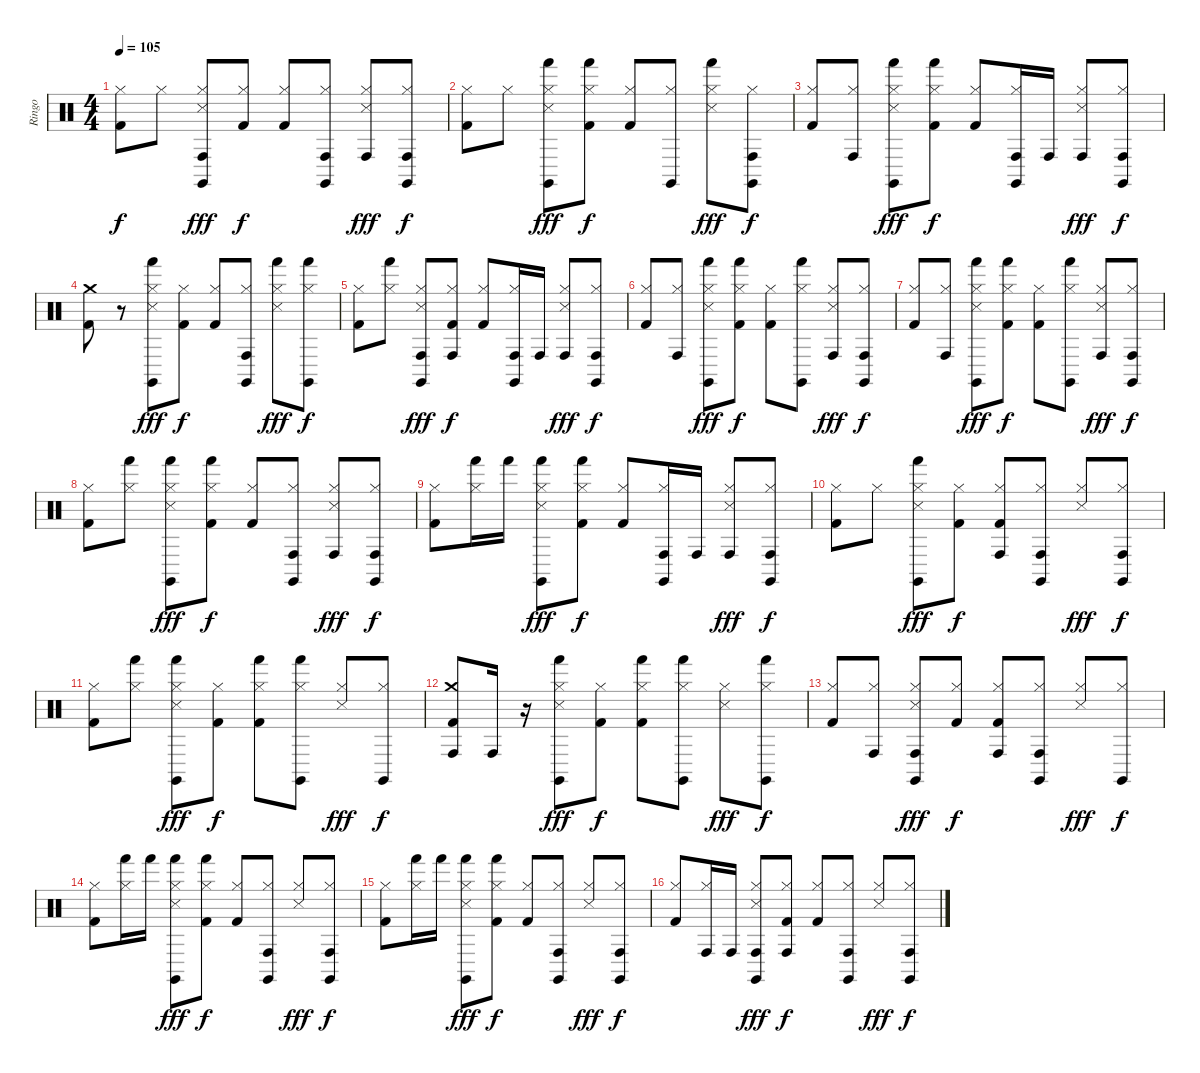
\track ("Ringo" "Ringo") {instrument percussion}
\staff {score}
\articulation defaults
\ts (4 4)
\tempo 105
\clef neutral
\ks c
("Kick (hit) 2" "Hi-Hat (closed)").8{dy f} "Hi-Hat (closed)".8 ("Claves (hit)" "Snare (side stick) 3" "Conga high (hit)" "Hi-Hat (closed)").8{dy fff} ("Hi-Hat (closed)" "Kick (hit) 2").8{dy f} ("Kick (hit) 2" "Hi-Hat (closed)").8 ("Conga high (hit)" "Claves (hit)" "Hi-Hat (closed)").8 ("Snare (side stick) 3" "Hi-Hat (closed)" "Conga high (hit)").8{dy fff} ("Hi-Hat (closed)" "Conga high (hit)" "Claves (hit)").8{dy f} |
("Kick (hit) 2" "Hi-Hat (closed)").8 "Hi-Hat (closed)".8 ("Hi-Hat (closed)" "Hand (hit)" "Claves (hit)" "Snare (side stick) 3").8{dy fff} ("Hi-Hat (closed)" "Hand (hit)" "Kick (hit) 2").8{dy f} ("Hi-Hat (closed)" "Kick (hit) 2").8 ("Claves (hit)" "Hi-Hat (closed)").8 ("Hand (hit)" "Hi-Hat (closed)" "Snare (side stick) 3").8{dy fff} ("Claves (hit)" "Hi-Hat (closed)" "Conga high (hit)").8{dy f} |
("Hi-Hat (closed)" "Kick (hit) 2").8 ("Conga high (hit)" "Hi-Hat (closed)").8 ("Hi-Hat (closed)" "Hand (hit)" "Snare (side stick) 3" "Claves (hit)").8{dy fff} ("Hi-Hat (closed)" "Hand (hit)" "Kick (hit) 2").8{dy f} ("Kick (hit) 2" "Hi-Hat (closed)").8 ("Claves (hit)" "Hi-Hat (closed)" "Conga high (hit)").16 "Conga high (hit)".16 ("Hi-Hat (closed)" "Snare (side stick) 3" "Conga high (hit)").8{dy fff} ("Conga high (hit)" "Hi-Hat (closed)" "Claves (hit)").8{dy f} |
("Crash medium (hit)" "Kick (hit) 2").8 r.8 ("Claves (hit)" "Hand (hit)" "Snare (side stick) 3" "Hi-Hat (closed)").8{dy fff} ("Hi-Hat (closed)" "Kick (hit) 2").8{dy f} ("Kick (hit) 2" "Hi-Hat (closed)").8 ("Conga high (hit)" "Hi-Hat (closed)" "Claves (hit)").8 ("Hand (hit)" "Snare (side stick) 3" "Hi-Hat (closed)").8{dy fff} ("Hand (hit)" "Hi-Hat (closed)" "Claves (hit)").8{dy f} |
("Kick (hit) 2" "Hi-Hat (closed)").8 ("Hi-Hat (closed)" "Hand (hit)").8 ("Hi-Hat (closed)" "Claves (hit)" "Conga high (hit)" "Snare (side stick) 3").8{dy fff} ("Hi-Hat (closed)" "Kick (hit) 2" "Conga high (hit)").8{dy f} ("Hi-Hat (closed)" "Kick (hit) 2").8 ("Conga high (hit)" "Claves (hit)" "Hi-Hat (closed)").16 "Conga high (hit)".16 ("Snare (side stick) 3" "Hi-Hat (closed)" "Conga high (hit)").8{dy fff} ("Hi-Hat (closed)" "Conga high (hit)" "Claves (hit)").8{dy f} |
("Kick (hit) 2" "Hi-Hat (closed)").8 ("Conga high (hit)" "Hi-Hat (closed)").8 ("Snare (side stick) 3" "Hand (hit)" "Claves (hit)" "Hi-Hat (closed)").8{dy fff} ("Hand (hit)" "Hi-Hat (closed)" "Kick (hit) 2").8{dy f} ("Kick (hit) 2" "Hi-Hat (closed)").8 ("Claves (hit)" "Hi-Hat (closed)" "Hand (hit)").8 ("Hi-Hat (closed)" "Conga high (hit)" "Snare (side stick) 3").8{dy fff} ("Hi-Hat (closed)" "Conga high (hit)" "Claves (hit)").8{dy f} |
("Hi-Hat (closed)" "Kick (hit) 2").8 ("Conga high (hit)" "Hi-Hat (closed)").8 ("Hi-Hat (closed)" "Hand (hit)" "Claves (hit)" "Snare (side stick) 3").8{dy fff} ("Hand (hit)" "Hi-Hat (closed)" "Kick (hit) 2").8{dy f} ("Hi-Hat (closed)" "Kick (hit) 2").8 ("Claves (hit)" "Hi-Hat (closed)" "Hand (hit)").8 ("Hi-Hat (closed)" "Snare (side stick) 3" "Conga high (hit)").8{dy fff} ("Conga high (hit)" "Hi-Hat (closed)" "Claves (hit)").8{dy f} |
("Hi-Hat (closed)" "Kick (hit) 2").8 ("Hi-Hat (closed)" "Hand (hit)").8 ("Hand (hit)" "Snare (side stick) 3" "Claves (hit)" "Hi-Hat (closed)").8{dy fff} ("Hi-Hat (closed)" "Kick (hit) 2" "Hand (hit)").8{dy f} ("Kick (hit) 2" "Hi-Hat (closed)").8 ("Conga high (hit)" "Claves (hit)" "Hi-Hat (closed)").8 ("Snare (side stick) 3" "Conga high (hit)" "Hi-Hat (closed)").8{dy fff} ("Hi-Hat (closed)" "Claves (hit)" "Conga high (hit)").8{dy f} |
("Hi-Hat (closed)" "Kick (hit) 2").8 ("Hi-Hat (closed)" "Hand (hit)").16 "Hand (hit)".16 ("Snare (side stick) 3" "Hi-Hat (closed)" "Hand (hit)" "Claves (hit)").8{dy fff} ("Hi-Hat (closed)" "Hand (hit)" "Kick (hit) 2").8{dy f} ("Hi-Hat (closed)" "Kick (hit) 2").8 ("Conga high (hit)" "Claves (hit)" "Hi-Hat (closed)").16 "Conga high (hit)".16 ("Hi-Hat (closed)" "Conga high (hit)" "Snare (side stick) 3").8{dy fff} ("Hi-Hat (closed)" "Conga high (hit)" "Claves (hit)").8{dy f} |
("Kick (hit) 2" "Hi-Hat (closed)").8 "Hi-Hat (closed)".8 ("Snare (side stick) 3" "Hand (hit)" "Claves (hit)" "Hi-Hat (closed)").8{dy fff} ("Hi-Hat (closed)" "Kick (hit) 2").8{dy f} ("Kick (hit) 2" "Conga high (hit)" "Hi-Hat (closed)").8 ("Conga high (hit)" "Claves (hit)" "Hi-Hat (closed)").8 ("Hi-Hat (closed)" "Snare (side stick) 3").8{dy fff} ("Hi-Hat (closed)" "Conga high (hit)" "Claves (hit)").8{dy f} |
("Hi-Hat (closed)" "Kick (hit) 2").8 ("Hi-Hat (closed)" "Hand (hit)").8 ("Claves (hit)" "Hand (hit)" "Hi-Hat (closed)" "Snare (side stick) 3").8{dy fff} ("Kick (hit) 2" "Hi-Hat (closed)").8{dy f} ("Hi-Hat (closed)" "Hand (hit)" "Kick (hit) 2").8 ("Hand (hit)" "Claves (hit)" "Hi-Hat (closed)").8 ("Snare (side stick) 3" "Hi-Hat (closed)").8{dy fff} ("Claves (hit)" "Hi-Hat (closed)").8{dy f} |
("Kick (hit) 2" "Crash medium (hit)" "Conga high (hit)").8 "Conga high (hit)".16 r.16 ("Snare (side stick) 3" "Claves (hit)" "Hand (hit)" "Hi-Hat (closed)").8{dy fff} ("Kick (hit) 2" "Hi-Hat (closed)").8{dy f} ("Kick (hit) 2" "Hi-Hat (closed)" "Hand (hit)").8 ("Hand (hit)" "Hi-Hat (closed)" "Claves (hit)").8 ("Snare (side stick) 3" "Hi-Hat (closed)").8{dy fff} ("Claves (hit)" "Hi-Hat (closed)" "Hand (hit)").8{dy f} |
("Hi-Hat (closed)" "Kick (hit) 2").8 ("Hi-Hat (closed)" "Conga high (hit)").8 ("Snare (side stick) 3" "Claves (hit)" "Conga high (hit)" "Hi-Hat (closed)").8{dy fff} ("Hi-Hat (closed)" "Kick (hit) 2").8{dy f} ("Kick (hit) 2" "Conga high (hit)" "Hi-Hat (closed)").8 ("Conga high (hit)" "Claves (hit)" "Hi-Hat (closed)").8 ("Snare (side stick) 3" "Hi-Hat (closed)").8{dy fff} ("Hi-Hat (closed)" "Claves (hit)").8{dy f} |
("Kick (hit) 2" "Hi-Hat (closed)").8 ("Hi-Hat (closed)" "Hand (hit)").16 "Hand (hit)".16 ("Hand (hit)" "Claves (hit)" "Hi-Hat (closed)" "Snare (side stick) 3").8{dy fff} ("Kick (hit) 2" "Hi-Hat (closed)" "Hand (hit)").8{dy f} ("Kick (hit) 2" "Hi-Hat (closed)").8 ("Hi-Hat (closed)" "Conga high (hit)" "Claves (hit)").8 ("Hi-Hat (closed)" "Snare (side stick) 3").8{dy fff} ("Hi-Hat (closed)" "Conga high (hit)" "Claves (hit)").8{dy f} |
("Hi-Hat (closed)" "Kick (hit) 2").8 ("Hand (hit)" "Hi-Hat (closed)").16 "Hand (hit)".16 ("Snare (side stick) 3" "Hand (hit)" "Claves (hit)" "Hi-Hat (closed)").8{dy fff} ("Hi-Hat (closed)" "Hand (hit)" "Kick (hit) 2").8{dy f} ("Kick (hit) 2" "Hi-Hat (closed)").8 ("Conga high (hit)" "Claves (hit)" "Hi-Hat (closed)").8 ("Hi-Hat (closed)" "Snare (side stick) 3").8{dy fff} ("Conga high (hit)" "Claves (hit)" "Hi-Hat (closed)").8{dy f} |
("Hi-Hat (closed)" "Kick (hit) 2").8 ("Conga high (hit)" "Hi-Hat (closed)").16 "Conga high (hit)".16 ("Hi-Hat (closed)" "Claves (hit)" "Conga high (hit)" "Snare (side stick) 3").8{dy fff} ("Hi-Hat (closed)" "Kick (hit) 2" "Conga high (hit)").8{dy f} ("Hi-Hat (closed)" "Kick (hit) 2").8 ("Conga high (hit)" "Claves (hit)" "Hi-Hat (closed)").8 ("Snare (side stick) 3" "Hi-Hat (closed)").8{dy fff} ("Claves (hit)" "Conga high (hit)" "Hi-Hat (closed)").8{dy f}
